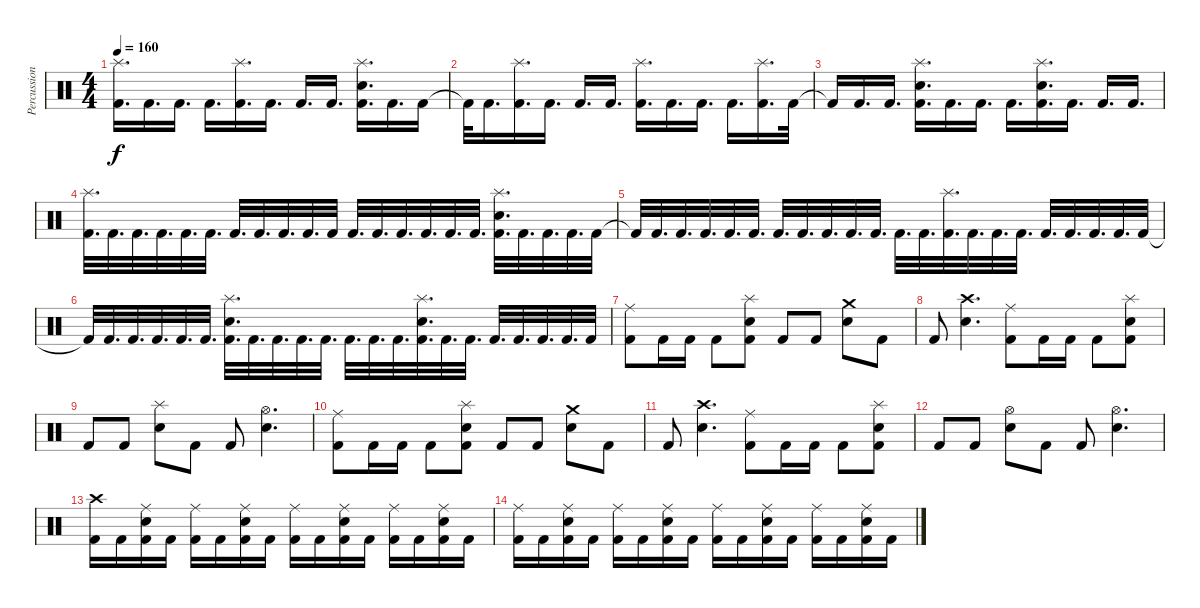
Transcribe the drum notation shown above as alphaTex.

\track ("Percussion" "Percussion") {instrument percussion}
\staff {score}
\articulation defaults
\ts (4 4)
\tempo 160
\clef neutral
\ks c
("Splash (hit)" "Kick (hit) 2").16{d dy f} "Kick (hit) 2".16{d} "Kick (hit) 2".16{d} "Kick (hit) 2".16{d} ("Splash (hit)" "Kick (hit) 2").16{d} "Kick (hit) 2".16{d} "Kick (hit) 2".16{d} "Kick (hit) 2".16{d} ("Splash (hit)" "Snare (hit) 2" "Kick (hit) 2").16{d} "Kick (hit) 2".16{d} "Kick (hit) 2".16 |
"Kick (hit) 2"{t}.32 "Kick (hit) 2".16{d} ("Splash (hit)" "Kick (hit) 2").16{d} "Kick (hit) 2".16{d} "Kick (hit) 2".16{d} "Kick (hit) 2".16{d} ("Splash (hit)" "Kick (hit) 2").16{d} "Kick (hit) 2".16{d} "Kick (hit) 2".16{d} "Kick (hit) 2".16{d} ("Splash (hit)" "Kick (hit) 2").16{d} "Kick (hit) 2".32 |
"Kick (hit) 2"{t}.16 "Kick (hit) 2".16{d} "Kick (hit) 2".16{d} ("Splash (hit)" "Snare (hit) 2" "Kick (hit) 2").16{d} "Kick (hit) 2".16{d} "Kick (hit) 2".16{d} "Kick (hit) 2".16{d} ("Splash (hit)" "Snare (hit) 2" "Kick (hit) 2").16{d} "Kick (hit) 2".16{d} "Kick (hit) 2".16{d} "Kick (hit) 2".16{d} |
("Splash (hit)" "Kick (hit) 2").32{d} "Kick (hit) 2".32{d} "Kick (hit) 2".32{d} "Kick (hit) 2".32{d} "Kick (hit) 2".32{d} "Kick (hit) 2".32{d} "Kick (hit) 2".32{d} "Kick (hit) 2".32{d} "Kick (hit) 2".32{d} "Kick (hit) 2".32{d} "Kick (hit) 2".32 "Kick (hit) 2".32{d} "Kick (hit) 2".32{d} "Kick (hit) 2".32{d} "Kick (hit) 2".32{d} "Kick (hit) 2".32{d} "Kick (hit) 2".32{d} ("Splash (hit)" "Snare (hit) 2" "Kick (hit) 2").32{d} "Kick (hit) 2".32{d} "Kick (hit) 2".32{d} "Kick (hit) 2".32{d} "Kick (hit) 2".32 |
"Kick (hit) 2"{t}.32 "Kick (hit) 2".32{d} "Kick (hit) 2".32{d} "Kick (hit) 2".32{d} "Kick (hit) 2".32{d} "Kick (hit) 2".32{d} "Kick (hit) 2".32{d} "Kick (hit) 2".32{d} "Kick (hit) 2".32{d} "Kick (hit) 2".32{d} "Kick (hit) 2".32{d} "Kick (hit) 2".32{d} "Kick (hit) 2".32{d} ("Splash (hit)" "Kick (hit) 2").32{d} "Kick (hit) 2".32{d} "Kick (hit) 2".32{d} "Kick (hit) 2".32{d} "Kick (hit) 2".32{d} "Kick (hit) 2".32{d} "Kick (hit) 2".32{d} "Kick (hit) 2".32{d} "Kick (hit) 2".32 |
"Kick (hit) 2"{t}.32 "Kick (hit) 2".32{d} "Kick (hit) 2".32{d} "Kick (hit) 2".32{d} "Kick (hit) 2".32{d} "Kick (hit) 2".32{d} ("Splash (hit)" "Snare (hit) 2" "Kick (hit) 2").32{d} "Kick (hit) 2".32{d} "Kick (hit) 2".32{d} "Kick (hit) 2".32{d} "Kick (hit) 2".32{d} "Kick (hit) 2".32{d} "Kick (hit) 2".32{d} "Kick (hit) 2".32{d} ("Splash (hit)" "Snare (hit) 2" "Kick (hit) 2").32{d} "Kick (hit) 2".32{d} "Kick (hit) 2".32{d} "Kick (hit) 2".32{d} "Kick (hit) 2".32{d} "Kick (hit) 2".32{d} "Kick (hit) 2".32{d} "Kick (hit) 2".32 |
("Ride (middle)" "Kick (hit) 2").8 "Kick (hit) 2".16 "Kick (hit) 2".16 "Kick (hit) 2".8 ("Splash (hit)" "Snare (hit) 2" "Kick (hit) 2").8 "Kick (hit) 2".8 "Kick (hit) 2".8 ("Crash medium (hit)" "Snare (hit) 2").8 "Kick (hit) 2".8 |
"Kick (hit) 2".8 ("Crash high (hit)" "Snare (hit) 2").4{d} ("Ride (middle)" "Kick (hit) 2").8 "Kick (hit) 2".16 "Kick (hit) 2".16 "Kick (hit) 2".8 ("Splash (hit)" "Snare (hit) 2" "Kick (hit) 2").8 |
"Kick (hit) 2".8 "Kick (hit) 2".8 ("Splash (hit)" "Snare (hit) 2").8 "Kick (hit) 2".8 "Kick (hit) 2".8 ("Hi-Hat (open)" "Snare (hit) 2").4{d} |
("Ride (middle)" "Kick (hit) 2").8 "Kick (hit) 2".16 "Kick (hit) 2".16 "Kick (hit) 2".8 ("Splash (hit)" "Snare (hit) 2" "Kick (hit) 2").8 "Kick (hit) 2".8 "Kick (hit) 2".8 ("Crash medium (hit)" "Snare (hit) 2").8 "Kick (hit) 2".8 |
"Kick (hit) 2".8 ("Crash high (hit)" "Snare (hit) 2").4{d} ("Ride (middle)" "Kick (hit) 2").8 "Kick (hit) 2".16 "Kick (hit) 2".16 "Kick (hit) 2".8 ("Splash (hit)" "Snare (hit) 2" "Kick (hit) 2").8 |
"Kick (hit) 2".8 "Kick (hit) 2".8 ("Hi-Hat (open)" "Snare (hit) 2").8 "Kick (hit) 2".8 "Kick (hit) 2".8 ("Hi-Hat (open)" "Snare (hit) 2").4{d} |
("Crash high (hit)" "Kick (hit) 2").16 "Kick (hit) 2".16 ("Ride (middle)" "Snare (hit) 2" "Kick (hit) 2").16 "Kick (hit) 2".16 ("Ride (middle)" "Kick (hit) 2").16 "Kick (hit) 2".16 ("Ride (middle)" "Snare (hit) 2" "Kick (hit) 2").16 "Kick (hit) 2".16 ("Ride (middle)" "Kick (hit) 2").16 "Kick (hit) 2".16 ("Ride (middle)" "Snare (hit) 2" "Kick (hit) 2").16 "Kick (hit) 2".16 ("Ride (middle)" "Kick (hit) 2").16 "Kick (hit) 2".16 ("Ride (middle)" "Snare (hit) 2" "Kick (hit) 2").16 "Kick (hit) 2".16 |
("Ride (middle)" "Kick (hit) 2").16 "Kick (hit) 2".16 ("Ride (middle)" "Snare (hit) 2" "Kick (hit) 2").16 "Kick (hit) 2".16 ("Ride (middle)" "Kick (hit) 2").16 "Kick (hit) 2".16 ("Ride (middle)" "Snare (hit) 2" "Kick (hit) 2").16 "Kick (hit) 2".16 ("Ride (middle)" "Kick (hit) 2").16 "Kick (hit) 2".16 ("Ride (middle)" "Snare (hit) 2" "Kick (hit) 2").16 "Kick (hit) 2".16 ("Ride (middle)" "Kick (hit) 2").16 "Kick (hit) 2".16 ("Ride (middle)" "Snare (hit) 2" "Kick (hit) 2").16 "Kick (hit) 2".16
